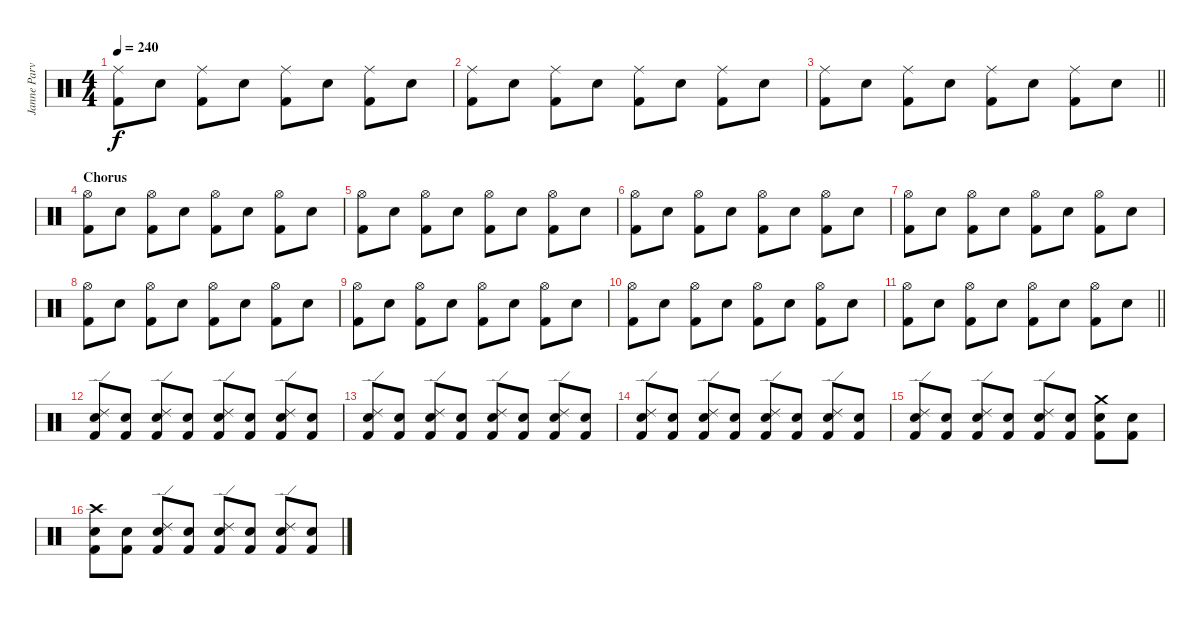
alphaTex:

\track ("Janne Parviainen" "Janne Parv") {instrument percussion}
\staff {score}
\articulation defaults
\ts (4 4)
\tempo 240
\clef neutral
\ks c
("Kick (hit) 2" "Ride (middle)").8{dy f} "Electric Snare (hit)".8 ("Kick (hit) 2" "Ride (middle)").8 "Electric Snare (hit)".8 ("Kick (hit) 2" "Ride (middle)").8 "Electric Snare (hit)".8 ("Kick (hit) 2" "Ride (middle)").8 "Electric Snare (hit)".8 |
("Kick (hit) 2" "Ride (middle)").8 "Electric Snare (hit)".8 ("Kick (hit) 2" "Ride (middle)").8 "Electric Snare (hit)".8 ("Kick (hit) 2" "Ride (middle)").8 "Electric Snare (hit)".8 ("Kick (hit) 2" "Ride (middle)").8 "Electric Snare (hit)".8 |
\barLineRight lightlight
("Kick (hit) 2" "Ride (middle)").8 "Electric Snare (hit)".8 ("Kick (hit) 2" "Ride (middle)").8 "Electric Snare (hit)".8 ("Kick (hit) 2" "Ride (middle)").8 "Electric Snare (hit)".8 ("Kick (hit) 2" "Ride (middle)").8 "Electric Snare (hit)".8 |
\section ("" "Chorus")
("Kick (hit) 2" "Hi-Hat (open)").8 "Electric Snare (hit)".8 ("Kick (hit) 2" "Hi-Hat (open)").8 "Electric Snare (hit)".8 ("Kick (hit) 2" "Hi-Hat (open)").8 "Electric Snare (hit)".8 ("Kick (hit) 2" "Hi-Hat (open)").8 "Electric Snare (hit)".8 |
("Kick (hit) 2" "Hi-Hat (open)").8 "Electric Snare (hit)".8 ("Kick (hit) 2" "Hi-Hat (open)").8 "Electric Snare (hit)".8 ("Kick (hit) 2" "Hi-Hat (open)").8 "Electric Snare (hit)".8 ("Kick (hit) 2" "Hi-Hat (open)").8 "Electric Snare (hit)".8 |
("Kick (hit) 2" "Hi-Hat (open)").8 "Electric Snare (hit)".8 ("Kick (hit) 2" "Hi-Hat (open)").8 "Electric Snare (hit)".8 ("Kick (hit) 2" "Hi-Hat (open)").8 "Electric Snare (hit)".8 ("Kick (hit) 2" "Hi-Hat (open)").8 "Electric Snare (hit)".8 |
("Kick (hit) 2" "Hi-Hat (open)").8 "Electric Snare (hit)".8 ("Kick (hit) 2" "Hi-Hat (open)").8 "Electric Snare (hit)".8 ("Kick (hit) 2" "Hi-Hat (open)").8 "Electric Snare (hit)".8 ("Kick (hit) 2" "Hi-Hat (open)").8 "Electric Snare (hit)".8 |
("Kick (hit) 2" "Hi-Hat (open)").8 "Electric Snare (hit)".8 ("Kick (hit) 2" "Hi-Hat (open)").8 "Electric Snare (hit)".8 ("Kick (hit) 2" "Hi-Hat (open)").8 "Electric Snare (hit)".8 ("Kick (hit) 2" "Hi-Hat (open)").8 "Electric Snare (hit)".8 |
("Kick (hit) 2" "Hi-Hat (open)").8 "Electric Snare (hit)".8 ("Kick (hit) 2" "Hi-Hat (open)").8 "Electric Snare (hit)".8 ("Kick (hit) 2" "Hi-Hat (open)").8 "Electric Snare (hit)".8 ("Kick (hit) 2" "Hi-Hat (open)").8 "Electric Snare (hit)".8 |
("Kick (hit) 2" "Hi-Hat (open)").8 "Electric Snare (hit)".8 ("Kick (hit) 2" "Hi-Hat (open)").8 "Electric Snare (hit)".8 ("Kick (hit) 2" "Hi-Hat (open)").8 "Electric Snare (hit)".8 ("Kick (hit) 2" "Hi-Hat (open)").8 "Electric Snare (hit)".8 |
\barLineRight lightlight
("Kick (hit) 2" "Hi-Hat (open)").8 "Electric Snare (hit)".8 ("Kick (hit) 2" "Hi-Hat (open)").8 "Electric Snare (hit)".8 ("Kick (hit) 2" "Hi-Hat (open)").8 "Electric Snare (hit)".8 ("Kick (hit) 2" "Hi-Hat (open)").8 "Electric Snare (hit)".8 |
("Electric Snare (hit)" "Kick (hit) 2" "Ride (edge) 2").8 ("Kick (hit) 2" "Electric Snare (hit)").8 ("Electric Snare (hit)" "Kick (hit) 2" "Ride (edge) 2").8 ("Kick (hit) 2" "Electric Snare (hit)").8 ("Electric Snare (hit)" "Kick (hit) 2" "Ride (edge) 2").8 ("Kick (hit) 2" "Electric Snare (hit)").8 ("Electric Snare (hit)" "Kick (hit) 2" "Ride (edge) 2").8 ("Kick (hit) 2" "Electric Snare (hit)").8 |
("Electric Snare (hit)" "Kick (hit) 2" "Ride (edge) 2").8 ("Kick (hit) 2" "Electric Snare (hit)").8 ("Electric Snare (hit)" "Kick (hit) 2" "Ride (edge) 2").8 ("Kick (hit) 2" "Electric Snare (hit)").8 ("Electric Snare (hit)" "Kick (hit) 2" "Ride (edge) 2").8 ("Kick (hit) 2" "Electric Snare (hit)").8 ("Electric Snare (hit)" "Kick (hit) 2" "Ride (edge) 2").8 ("Kick (hit) 2" "Electric Snare (hit)").8 |
("Electric Snare (hit)" "Kick (hit) 2" "Ride (edge) 2").8 ("Kick (hit) 2" "Electric Snare (hit)").8 ("Electric Snare (hit)" "Kick (hit) 2" "Ride (edge) 2").8 ("Kick (hit) 2" "Electric Snare (hit)").8 ("Electric Snare (hit)" "Kick (hit) 2" "Ride (edge) 2").8 ("Kick (hit) 2" "Electric Snare (hit)").8 ("Electric Snare (hit)" "Kick (hit) 2" "Ride (edge) 2").8 ("Kick (hit) 2" "Electric Snare (hit)").8 |
("Electric Snare (hit)" "Kick (hit) 2" "Ride (edge) 2").8 ("Kick (hit) 2" "Electric Snare (hit)").8 ("Electric Snare (hit)" "Kick (hit) 2" "Ride (edge) 2").8 ("Kick (hit) 2" "Electric Snare (hit)").8 ("Electric Snare (hit)" "Kick (hit) 2" "Ride (edge) 2").8 ("Kick (hit) 2" "Electric Snare (hit)").8 ("Crash medium (hit)" "Kick (hit) 2" "Electric Snare (hit)").8 ("Kick (hit) 2" "Electric Snare (hit)").8 |
("Electric Snare (hit)" "Kick (hit) 2" "Crash high (hit)").8 ("Kick (hit) 2" "Electric Snare (hit)").8 ("Electric Snare (hit)" "Kick (hit) 2" "Ride (edge) 2").8 ("Kick (hit) 2" "Electric Snare (hit)").8 ("Electric Snare (hit)" "Kick (hit) 2" "Ride (edge) 2").8 ("Kick (hit) 2" "Electric Snare (hit)").8 ("Electric Snare (hit)" "Kick (hit) 2" "Ride (edge) 2").8 ("Kick (hit) 2" "Electric Snare (hit)").8
